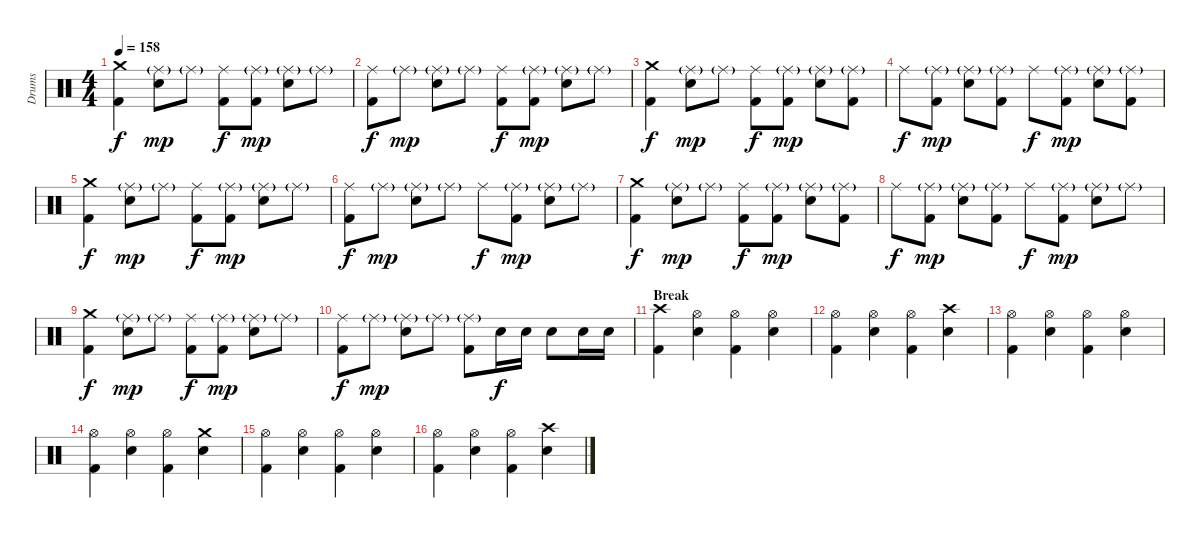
\track ("Drums" "Drums") {instrument percussion}
\staff {score}
\articulation defaults
\ts (4 4)
\tempo 158
\clef neutral
\ks c
("Crash medium (hit)" "Kick (hit) 2").4{dy f} ("Ride (middle)"{g} "Snare (hit) 2").8{dy mp} "Ride (middle)"{g}.8 ("Ride (middle)" "Kick (hit) 2").8{dy f} ("Ride (middle)"{g} "Kick (hit) 2").8{dy mp} ("Ride (middle)"{g} "Snare (hit) 2").8 "Ride (middle)"{g}.8 |
("Ride (middle)" "Kick (hit) 2").8{dy f} "Ride (middle)"{g}.8{dy mp} ("Ride (middle)"{g} "Snare (hit) 2").8 "Ride (middle)"{g}.8 ("Ride (middle)" "Kick (hit) 2").8{dy f} ("Ride (middle)"{g} "Kick (hit) 2").8{dy mp} ("Ride (middle)"{g} "Snare (hit) 2").8 "Ride (middle)"{g}.8 |
("Crash medium (hit)" "Kick (hit) 2").4{dy f} ("Ride (middle)"{g} "Snare (hit) 2").8{dy mp} "Ride (middle)"{g}.8 ("Ride (middle)" "Kick (hit) 2").8{dy f} ("Ride (middle)"{g} "Kick (hit) 2").8{dy mp} ("Ride (middle)"{g} "Snare (hit) 2").8 ("Ride (middle)"{g} "Kick (hit) 2").8 |
"Ride (middle)".8{dy f} ("Ride (middle)"{g} "Kick (hit) 2").8{dy mp} ("Ride (middle)"{g} "Snare (hit) 2").8 ("Ride (middle)"{g} "Kick (hit) 2").8 "Ride (middle)".8{dy f} ("Ride (middle)"{g} "Kick (hit) 2").8{dy mp} ("Ride (middle)"{g} "Snare (hit) 2").8 ("Ride (middle)"{g} "Kick (hit) 2").8 |
("Crash medium (hit)" "Kick (hit) 2").4{dy f} ("Ride (middle)"{g} "Snare (hit) 2").8{dy mp} "Ride (middle)"{g}.8 ("Ride (middle)" "Kick (hit) 2").8{dy f} ("Ride (middle)"{g} "Kick (hit) 2").8{dy mp} ("Ride (middle)"{g} "Snare (hit) 2").8 "Ride (middle)"{g}.8 |
("Ride (middle)" "Kick (hit) 2").8{dy f} "Ride (middle)"{g}.8{dy mp} ("Ride (middle)"{g} "Snare (hit) 2").8 "Ride (middle)"{g}.8 "Ride (middle)".8{dy f} ("Ride (middle)"{g} "Kick (hit) 2").8{dy mp} ("Ride (middle)"{g} "Snare (hit) 2").8 "Ride (middle)"{g}.8 |
("Crash medium (hit)" "Kick (hit) 2").4{dy f} ("Ride (middle)"{g} "Snare (hit) 2").8{dy mp} "Ride (middle)"{g}.8 ("Ride (middle)" "Kick (hit) 2").8{dy f} ("Ride (middle)"{g} "Kick (hit) 2").8{dy mp} ("Ride (middle)"{g} "Snare (hit) 2").8 ("Ride (middle)"{g} "Kick (hit) 2").8 |
"Ride (middle)".8{dy f} ("Ride (middle)"{g} "Kick (hit) 2").8{dy mp} ("Ride (middle)"{g} "Snare (hit) 2").8 ("Ride (middle)"{g} "Kick (hit) 2").8 "Ride (middle)".8{dy f} ("Ride (middle)"{g} "Kick (hit) 2").8{dy mp} ("Ride (middle)"{g} "Snare (hit) 2").8 "Ride (middle)"{g}.8 |
("Crash medium (hit)" "Kick (hit) 2").4{dy f} ("Ride (middle)"{g} "Snare (hit) 2").8{dy mp} "Ride (middle)"{g}.8 ("Ride (middle)" "Kick (hit) 2").8{dy f} ("Ride (middle)"{g} "Kick (hit) 2").8{dy mp} ("Ride (middle)"{g} "Snare (hit) 2").8 "Ride (middle)"{g}.8 |
("Ride (middle)" "Kick (hit) 2").8{dy f} "Ride (middle)"{g}.8{dy mp} ("Ride (middle)"{g} "Snare (hit) 2").8 "Ride (middle)"{g}.8 ("Ride (middle)"{g} "Kick (hit) 2").8 "Snare (hit) 2".16{dy f} "Snare (hit) 2".16 "Snare (hit) 2".8 "Snare (hit) 2".16 "Snare (hit) 2".16 |
\section ("" "Break")
("Crash high (hit)" "Kick (hit) 2").4 ("Hi-Hat (open)" "Snare (hit) 2").4 ("Hi-Hat (open)" "Kick (hit) 2").4 ("Hi-Hat (open)" "Snare (hit) 2").4 |
("Hi-Hat (open)" "Kick (hit) 2").4 ("Hi-Hat (open)" "Snare (hit) 2").4 ("Hi-Hat (open)" "Kick (hit) 2").4 ("Crash high (hit)" "Snare (hit) 2").4 |
("Hi-Hat (open)" "Kick (hit) 2").4 ("Hi-Hat (open)" "Snare (hit) 2").4 ("Hi-Hat (open)" "Kick (hit) 2").4 ("Hi-Hat (open)" "Snare (hit) 2").4 |
("Hi-Hat (open)" "Kick (hit) 2").4 ("Hi-Hat (open)" "Snare (hit) 2").4 ("Hi-Hat (open)" "Kick (hit) 2").4 ("Crash medium (hit)" "Snare (hit) 2").4 |
("Hi-Hat (open)" "Kick (hit) 2").4 ("Hi-Hat (open)" "Snare (hit) 2").4 ("Hi-Hat (open)" "Kick (hit) 2").4 ("Hi-Hat (open)" "Snare (hit) 2").4 |
("Hi-Hat (open)" "Kick (hit) 2").4 ("Hi-Hat (open)" "Snare (hit) 2").4 ("Hi-Hat (open)" "Kick (hit) 2").4 ("Crash high (hit)" "Snare (hit) 2").4
